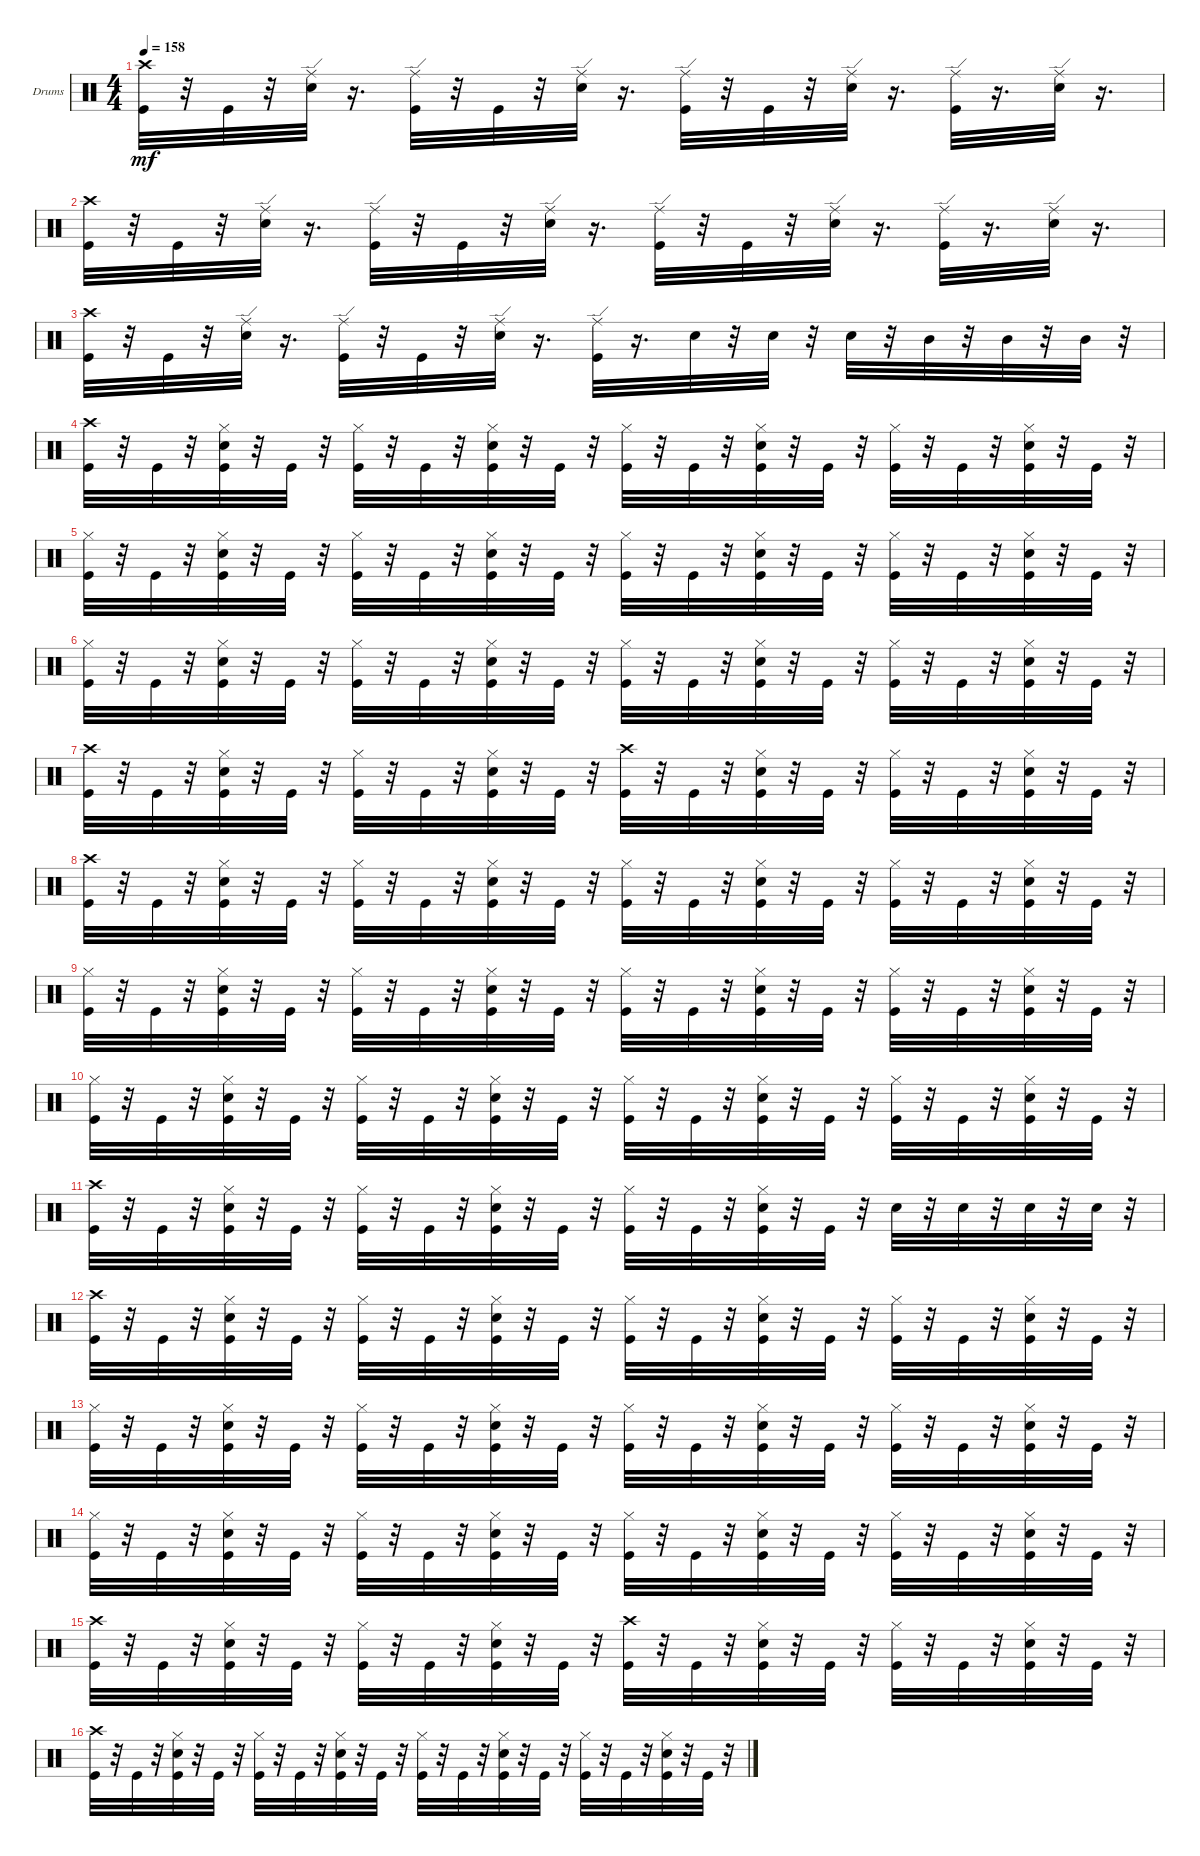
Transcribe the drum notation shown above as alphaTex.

\bracketExtendMode groupsimilarinstruments
\firstSystemTrackNameOrientation horizontal
\otherSystemsTrackNameOrientation horizontal
\track ("" "Drums") {instrument percussion}
\staff {score}
\articulation defaults
\ts (4 4)
\tempo 158
\clef neutral
\ks c
("Crash high (hit)" "Kick (hit)").32{dy mf} r.32 "Kick (hit)".32 r.32 ("Snare (hit) 2" "Ride (edge)").32 r.16{d} ("Ride (edge)" "Kick (hit)").32 r.32 "Kick (hit)".32 r.32 ("Ride (edge)" "Snare (hit) 2").32 r.16{d} ("Kick (hit)" "Ride (edge)").32 r.32 "Kick (hit)".32 r.32 ("Snare (hit) 2" "Ride (edge)").32 r.16{d} ("Kick (hit)" "Ride (edge)").32 r.16{d} ("Snare (hit) 2" "Ride (edge)").32 r.16{d} |
("Crash high (hit)" "Kick (hit)").32 r.32 "Kick (hit)".32 r.32 ("Snare (hit) 2" "Ride (edge)").32 r.16{d} ("Ride (edge)" "Kick (hit)").32 r.32 "Kick (hit)".32 r.32 ("Ride (edge)" "Snare (hit) 2").32 r.16{d} ("Kick (hit)" "Ride (edge)").32 r.32 "Kick (hit)".32 r.32 ("Snare (hit) 2" "Ride (edge)").32 r.16{d} ("Kick (hit)" "Ride (edge)").32 r.16{d} ("Snare (hit) 2" "Ride (edge)").32 r.16{d} |
("Crash high (hit)" "Kick (hit)").32 r.32 "Kick (hit)".32 r.32 ("Snare (hit) 2" "Ride (edge)").32 r.16{d} ("Ride (edge)" "Kick (hit)").32 r.32 "Kick (hit)".32 r.32 ("Ride (edge)" "Snare (hit) 2").32 r.16{d} ("Kick (hit)" "Ride (edge)").32 r.16{d} "Snare (hit) 2".32 r.32 "Snare (hit) 2".32 r.32 "Snare (hit) 2".32 r.32 "Mid Tom (hit)".32 r.32 "Mid Tom (hit)".32 r.32 "Mid Tom (hit)".32 r.32 |
("Crash high (hit)" "Kick (hit)").32 r.32 "Kick (hit)".32 r.32 ("Kick (hit)" "Snare (hit) 2" "Hi-Hat (closed)").32 r.32 "Kick (hit)".32 r.32 ("Kick (hit)" "Hi-Hat (closed)").32 r.32 "Kick (hit)".32 r.32 ("Kick (hit)" "Snare (hit) 2" "Hi-Hat (closed)").32 r.32 "Kick (hit)".32 r.32 ("Kick (hit)" "Hi-Hat (closed)").32 r.32 "Kick (hit)".32 r.32 ("Kick (hit)" "Snare (hit) 2" "Hi-Hat (closed)").32 r.32 "Kick (hit)".32 r.32 ("Kick (hit)" "Hi-Hat (closed)").32 r.32 "Kick (hit)".32 r.32 ("Kick (hit)" "Snare (hit) 2" "Hi-Hat (closed)").32 r.32 "Kick (hit)".32 r.32 |
("Hi-Hat (closed)" "Kick (hit)").32 r.32 "Kick (hit)".32 r.32 ("Kick (hit)" "Snare (hit) 2" "Hi-Hat (closed)").32 r.32 "Kick (hit)".32 r.32 ("Kick (hit)" "Hi-Hat (closed)").32 r.32 "Kick (hit)".32 r.32 ("Kick (hit)" "Snare (hit) 2" "Hi-Hat (closed)").32 r.32 "Kick (hit)".32 r.32 ("Kick (hit)" "Hi-Hat (closed)").32 r.32 "Kick (hit)".32 r.32 ("Kick (hit)" "Snare (hit) 2" "Hi-Hat (closed)").32 r.32 "Kick (hit)".32 r.32 ("Kick (hit)" "Hi-Hat (closed)").32 r.32 "Kick (hit)".32 r.32 ("Kick (hit)" "Snare (hit) 2" "Hi-Hat (closed)").32 r.32 "Kick (hit)".32 r.32 |
("Hi-Hat (closed)" "Kick (hit)").32 r.32 "Kick (hit)".32 r.32 ("Hi-Hat (closed)" "Kick (hit)" "Snare (hit) 2").32 r.32 "Kick (hit)".32 r.32 ("Hi-Hat (closed)" "Kick (hit)").32 r.32 "Kick (hit)".32 r.32 ("Hi-Hat (closed)" "Kick (hit)" "Snare (hit) 2").32 r.32 "Kick (hit)".32 r.32 ("Hi-Hat (closed)" "Kick (hit)").32 r.32 "Kick (hit)".32 r.32 ("Hi-Hat (closed)" "Kick (hit)" "Snare (hit) 2").32 r.32 "Kick (hit)".32 r.32 ("Hi-Hat (closed)" "Kick (hit)").32 r.32 "Kick (hit)".32 r.32 ("Hi-Hat (closed)" "Kick (hit)" "Snare (hit) 2").32 r.32 "Kick (hit)".32 r.32 |
("Crash high (hit)" "Kick (hit)").32 r.32 "Kick (hit)".32 r.32 ("Kick (hit)" "Snare (hit) 2" "Hi-Hat (closed)").32 r.32 "Kick (hit)".32 r.32 ("Kick (hit)" "Hi-Hat (closed)").32 r.32 "Kick (hit)".32 r.32 ("Kick (hit)" "Snare (hit) 2" "Hi-Hat (closed)").32 r.32 "Kick (hit)".32 r.32 ("Crash high (hit)" "Kick (hit)").32 r.32 "Kick (hit)".32 r.32 ("Kick (hit)" "Snare (hit) 2" "Hi-Hat (closed)").32 r.32 "Kick (hit)".32 r.32 ("Kick (hit)" "Hi-Hat (closed)").32 r.32 "Kick (hit)".32 r.32 ("Kick (hit)" "Snare (hit) 2" "Hi-Hat (closed)").32 r.32 "Kick (hit)".32 r.32 |
("Crash high (hit)" "Kick (hit)").32 r.32 "Kick (hit)".32 r.32 ("Kick (hit)" "Snare (hit) 2" "Hi-Hat (closed)").32 r.32 "Kick (hit)".32 r.32 ("Kick (hit)" "Hi-Hat (closed)").32 r.32 "Kick (hit)".32 r.32 ("Kick (hit)" "Snare (hit) 2" "Hi-Hat (closed)").32 r.32 "Kick (hit)".32 r.32 ("Kick (hit)" "Hi-Hat (closed)").32 r.32 "Kick (hit)".32 r.32 ("Kick (hit)" "Snare (hit) 2" "Hi-Hat (closed)").32 r.32 "Kick (hit)".32 r.32 ("Kick (hit)" "Hi-Hat (closed)").32 r.32 "Kick (hit)".32 r.32 ("Kick (hit)" "Snare (hit) 2" "Hi-Hat (closed)").32 r.32 "Kick (hit)".32 r.32 |
("Hi-Hat (closed)" "Kick (hit)").32 r.32 "Kick (hit)".32 r.32 ("Kick (hit)" "Snare (hit) 2" "Hi-Hat (closed)").32 r.32 "Kick (hit)".32 r.32 ("Kick (hit)" "Hi-Hat (closed)").32 r.32 "Kick (hit)".32 r.32 ("Kick (hit)" "Snare (hit) 2" "Hi-Hat (closed)").32 r.32 "Kick (hit)".32 r.32 ("Kick (hit)" "Hi-Hat (closed)").32 r.32 "Kick (hit)".32 r.32 ("Kick (hit)" "Snare (hit) 2" "Hi-Hat (closed)").32 r.32 "Kick (hit)".32 r.32 ("Kick (hit)" "Hi-Hat (closed)").32 r.32 "Kick (hit)".32 r.32 ("Kick (hit)" "Snare (hit) 2" "Hi-Hat (closed)").32 r.32 "Kick (hit)".32 r.32 |
("Hi-Hat (closed)" "Kick (hit)").32 r.32 "Kick (hit)".32 r.32 ("Kick (hit)" "Snare (hit) 2" "Hi-Hat (closed)").32 r.32 "Kick (hit)".32 r.32 ("Kick (hit)" "Hi-Hat (closed)").32 r.32 "Kick (hit)".32 r.32 ("Kick (hit)" "Snare (hit) 2" "Hi-Hat (closed)").32 r.32 "Kick (hit)".32 r.32 ("Kick (hit)" "Hi-Hat (closed)").32 r.32 "Kick (hit)".32 r.32 ("Kick (hit)" "Snare (hit) 2" "Hi-Hat (closed)").32 r.32 "Kick (hit)".32 r.32 ("Kick (hit)" "Hi-Hat (closed)").32 r.32 "Kick (hit)".32 r.32 ("Kick (hit)" "Snare (hit) 2" "Hi-Hat (closed)").32 r.32 "Kick (hit)".32 r.32 |
("Crash high (hit)" "Kick (hit)").32 r.32 "Kick (hit)".32 r.32 ("Kick (hit)" "Snare (hit) 2" "Hi-Hat (closed)").32 r.32 "Kick (hit)".32 r.32 ("Kick (hit)" "Hi-Hat (closed)").32 r.32 "Kick (hit)".32 r.32 ("Kick (hit)" "Snare (hit) 2" "Hi-Hat (closed)").32 r.32 "Kick (hit)".32 r.32 ("Hi-Hat (closed)" "Kick (hit)").32 r.32 "Kick (hit)".32 r.32 ("Kick (hit)" "Snare (hit) 2" "Hi-Hat (closed)").32 r.32 "Kick (hit)".32 r.32 "Snare (hit) 2".32 r.32 "Snare (hit) 2".32 r.32 "Snare (hit) 2".32 r.32 "Snare (hit) 2".32 r.32 |
("Crash high (hit)" "Kick (hit)").32 r.32 "Kick (hit)".32 r.32 ("Kick (hit)" "Snare (hit) 2" "Hi-Hat (closed)").32 r.32 "Kick (hit)".32 r.32 ("Kick (hit)" "Hi-Hat (closed)").32 r.32 "Kick (hit)".32 r.32 ("Kick (hit)" "Snare (hit) 2" "Hi-Hat (closed)").32 r.32 "Kick (hit)".32 r.32 ("Kick (hit)" "Hi-Hat (closed)").32 r.32 "Kick (hit)".32 r.32 ("Kick (hit)" "Snare (hit) 2" "Hi-Hat (closed)").32 r.32 "Kick (hit)".32 r.32 ("Kick (hit)" "Hi-Hat (closed)").32 r.32 "Kick (hit)".32 r.32 ("Kick (hit)" "Snare (hit) 2" "Hi-Hat (closed)").32 r.32 "Kick (hit)".32 r.32 |
("Hi-Hat (closed)" "Kick (hit)").32 r.32 "Kick (hit)".32 r.32 ("Kick (hit)" "Snare (hit) 2" "Hi-Hat (closed)").32 r.32 "Kick (hit)".32 r.32 ("Kick (hit)" "Hi-Hat (closed)").32 r.32 "Kick (hit)".32 r.32 ("Kick (hit)" "Snare (hit) 2" "Hi-Hat (closed)").32 r.32 "Kick (hit)".32 r.32 ("Kick (hit)" "Hi-Hat (closed)").32 r.32 "Kick (hit)".32 r.32 ("Kick (hit)" "Snare (hit) 2" "Hi-Hat (closed)").32 r.32 "Kick (hit)".32 r.32 ("Kick (hit)" "Hi-Hat (closed)").32 r.32 "Kick (hit)".32 r.32 ("Kick (hit)" "Snare (hit) 2" "Hi-Hat (closed)").32 r.32 "Kick (hit)".32 r.32 |
("Hi-Hat (closed)" "Kick (hit)").32 r.32 "Kick (hit)".32 r.32 ("Kick (hit)" "Snare (hit) 2" "Hi-Hat (closed)").32 r.32 "Kick (hit)".32 r.32 ("Kick (hit)" "Hi-Hat (closed)").32 r.32 "Kick (hit)".32 r.32 ("Kick (hit)" "Snare (hit) 2" "Hi-Hat (closed)").32 r.32 "Kick (hit)".32 r.32 ("Kick (hit)" "Hi-Hat (closed)").32 r.32 "Kick (hit)".32 r.32 ("Kick (hit)" "Snare (hit) 2" "Hi-Hat (closed)").32 r.32 "Kick (hit)".32 r.32 ("Kick (hit)" "Hi-Hat (closed)").32 r.32 "Kick (hit)".32 r.32 ("Kick (hit)" "Snare (hit) 2" "Hi-Hat (closed)").32 r.32 "Kick (hit)".32 r.32 |
("Crash high (hit)" "Kick (hit)").32 r.32 "Kick (hit)".32 r.32 ("Kick (hit)" "Snare (hit) 2" "Hi-Hat (closed)").32 r.32 "Kick (hit)".32 r.32 ("Kick (hit)" "Hi-Hat (closed)").32 r.32 "Kick (hit)".32 r.32 ("Kick (hit)" "Snare (hit) 2" "Hi-Hat (closed)").32 r.32 "Kick (hit)".32 r.32 ("Crash high (hit)" "Kick (hit)").32 r.32 "Kick (hit)".32 r.32 ("Kick (hit)" "Snare (hit) 2" "Hi-Hat (closed)").32 r.32 "Kick (hit)".32 r.32 ("Kick (hit)" "Hi-Hat (closed)").32 r.32 "Kick (hit)".32 r.32 ("Kick (hit)" "Snare (hit) 2" "Hi-Hat (closed)").32 r.32 "Kick (hit)".32 r.32 |
("Crash high (hit)" "Kick (hit)").32 r.32 "Kick (hit)".32 r.32 ("Kick (hit)" "Snare (hit) 2" "Hi-Hat (closed)").32 r.32 "Kick (hit)".32 r.32 ("Kick (hit)" "Hi-Hat (closed)").32 r.32 "Kick (hit)".32 r.32 ("Kick (hit)" "Snare (hit) 2" "Hi-Hat (closed)").32 r.32 "Kick (hit)".32 r.32 ("Kick (hit)" "Hi-Hat (closed)").32 r.32 "Kick (hit)".32 r.32 ("Kick (hit)" "Snare (hit) 2" "Hi-Hat (closed)").32 r.32 "Kick (hit)".32 r.32 ("Kick (hit)" "Hi-Hat (closed)").32 r.32 "Kick (hit)".32 r.32 ("Kick (hit)" "Snare (hit) 2" "Hi-Hat (closed)").32 r.32 "Kick (hit)".32 r.32
